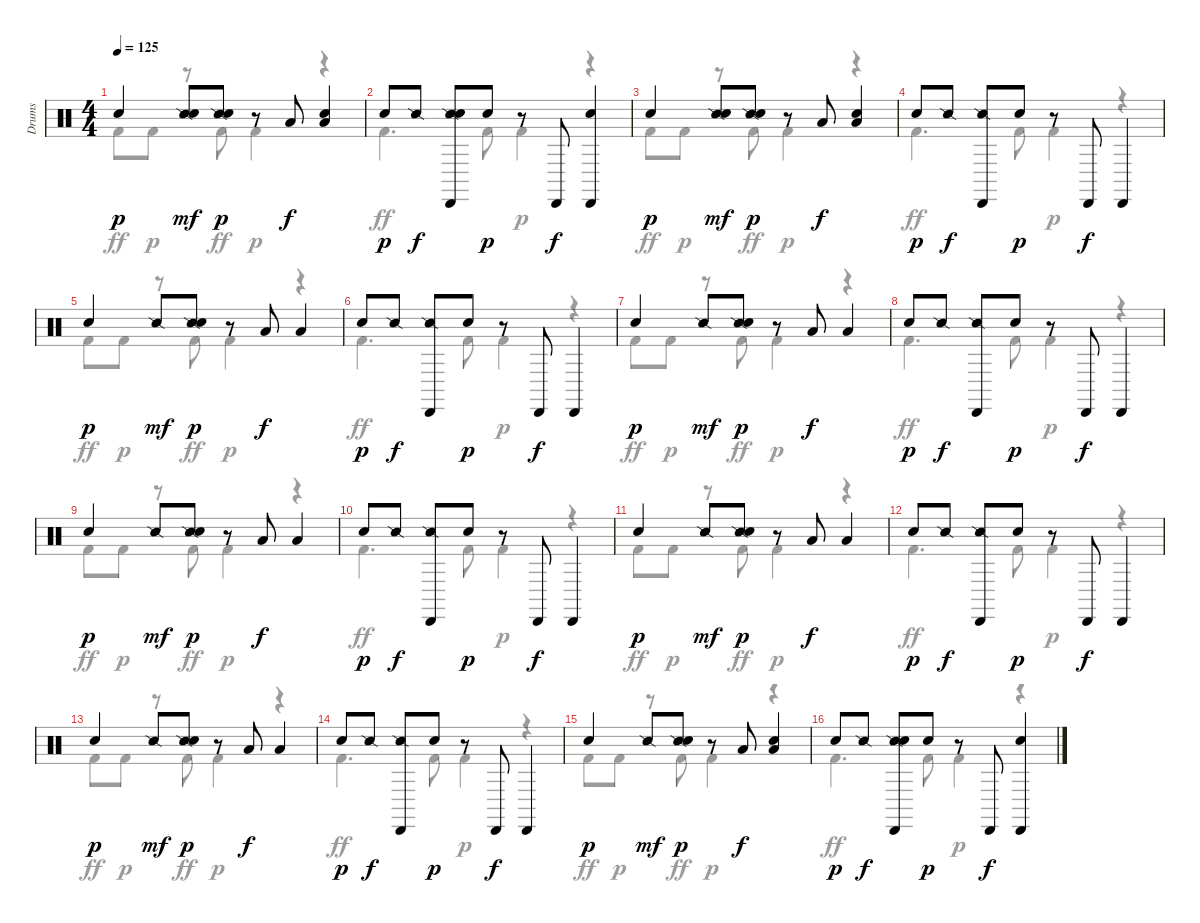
\track ("Drums" "Drums") {instrument percussion}
\staff {score}
\articulation defaults
\voice
\ts (4 4)
\tempo 125
\clef neutral
\ks c "Hand Clap (hit)".4{dy p}
("Snare (side stick) 2" "Snare (hit) 2").8{dy mf} ("Snare (side stick) 2" "Hand Clap (hit)").8{dy p} r.8 "Low Tom (hit)".8{dy f} ("Low Tom (hit)" "Snare (hit) 2").4 |
"Hand Clap (hit)".8{dy p} "Snare (side stick) 2".8{dy f} ("Snare (side stick) 2" "Cabasa (hit)" "Snare (hit) 2").8 "Hand Clap (hit)".8{dy p} r.8 "Cabasa (hit)".8{dy f} ("Cabasa (hit)" "Snare (hit) 2").4 |
"Hand Clap (hit)".4{dy p} ("Snare (side stick) 2" "Snare (hit) 2").8{dy mf} ("Snare (side stick) 2" "Hand Clap (hit)").8{dy p} r.8 "Low Tom (hit)".8{dy f} ("Low Tom (hit)" "Snare (hit) 2").4 |
"Hand Clap (hit)".8{dy p} "Snare (side stick) 2".8{dy f} ("Snare (side stick) 2" "Cabasa (hit)").8 "Hand Clap (hit)".8{dy p} r.8 "Cabasa (hit)".8{dy f} "Cabasa (hit)".4 |
"Hand Clap (hit)".4{dy p} "Snare (side stick) 2".8{dy mf} ("Snare (side stick) 2" "Hand Clap (hit)").8{dy p} r.8 "Low Tom (hit)".8{dy f} "Low Tom (hit)".4 |
"Hand Clap (hit)".8{dy p} "Snare (side stick) 2".8{dy f} ("Snare (side stick) 2" "Cabasa (hit)").8 "Hand Clap (hit)".8{dy p} r.8 "Cabasa (hit)".8{dy f} "Cabasa (hit)".4 |
"Hand Clap (hit)".4{dy p} "Snare (side stick) 2".8{dy mf} ("Snare (side stick) 2" "Hand Clap (hit)").8{dy p} r.8 "Low Tom (hit)".8{dy f} "Low Tom (hit)".4 |
"Hand Clap (hit)".8{dy p} "Snare (side stick) 2".8{dy f} ("Snare (side stick) 2" "Cabasa (hit)").8 "Hand Clap (hit)".8{dy p} r.8 "Cabasa (hit)".8{dy f} "Cabasa (hit)".4 |
"Hand Clap (hit)".4{dy p} "Snare (side stick) 2".8{dy mf} ("Snare (side stick) 2" "Hand Clap (hit)").8{dy p} r.8 "Low Tom (hit)".8{dy f} "Low Tom (hit)".4 |
"Hand Clap (hit)".8{dy p} "Snare (side stick) 2".8{dy f} ("Snare (side stick) 2" "Cabasa (hit)").8 "Hand Clap (hit)".8{dy p} r.8 "Cabasa (hit)".8{dy f} "Cabasa (hit)".4 |
"Hand Clap (hit)".4{dy p} "Snare (side stick) 2".8{dy mf} ("Snare (side stick) 2" "Hand Clap (hit)").8{dy p} r.8 "Low Tom (hit)".8{dy f} "Low Tom (hit)".4 |
"Hand Clap (hit)".8{dy p} "Snare (side stick) 2".8{dy f} ("Snare (side stick) 2" "Cabasa (hit)").8 "Hand Clap (hit)".8{dy p} r.8 "Cabasa (hit)".8{dy f} "Cabasa (hit)".4 |
"Hand Clap (hit)".4{dy p} "Snare (side stick) 2".8{dy mf} ("Snare (side stick) 2" "Hand Clap (hit)").8{dy p} r.8 "Low Tom (hit)".8{dy f} "Low Tom (hit)".4 |
"Hand Clap (hit)".8{dy p} "Snare (side stick) 2".8{dy f} ("Snare (side stick) 2" "Cabasa (hit)").8 "Hand Clap (hit)".8{dy p} r.8 "Cabasa (hit)".8{dy f} "Cabasa (hit)".4 |
"Hand Clap (hit)".4{dy p} "Snare (side stick) 2".8{dy mf} ("Snare (side stick) 2" "Hand Clap (hit)").8{dy p} r.8 "Low Tom (hit)".8{dy f} ("Low Tom (hit)" "Snare (hit) 2").4 |
"Hand Clap (hit)".8{dy p} "Snare (side stick) 2".8{dy f} ("Snare (side stick) 2" "Cabasa (hit)" "Snare (hit) 2").8 "Hand Clap (hit)".8{dy p} r.8 "Cabasa (hit)".8{dy f} ("Cabasa (hit)" "Snare (hit) 2").4
\voice
\clef neutral
\ottava regular
\simile none
\ks c "Kick (hit) 2".8{dy ff} "Kick (hit) 2".8{dy p}
r.8 "Kick (hit) 2".8{dy ff} "Kick (hit) 2".4{dy p} r.4 |
"Kick (hit) 2".4{d dy ff} "Kick (hit) 2".8 "Kick (hit) 2".4{dy p} r.4 |
"Kick (hit) 2".8{dy ff} "Kick (hit) 2".8{dy p} r.8 "Kick (hit) 2".8{dy ff} "Kick (hit) 2".4{dy p} r.4 |
"Kick (hit) 2".4{d dy ff} "Kick (hit) 2".8 "Kick (hit) 2".4{dy p} r.4 |
"Kick (hit) 2".8{dy ff} "Kick (hit) 2".8{dy p} r.8 "Kick (hit) 2".8{dy ff} "Kick (hit) 2".4{dy p} r.4 |
"Kick (hit) 2".4{d dy ff} "Kick (hit) 2".8 "Kick (hit) 2".4{dy p} r.4 |
"Kick (hit) 2".8{dy ff} "Kick (hit) 2".8{dy p} r.8 "Kick (hit) 2".8{dy ff} "Kick (hit) 2".4{dy p} r.4 |
"Kick (hit) 2".4{d dy ff} "Kick (hit) 2".8 "Kick (hit) 2".4{dy p} r.4 |
"Kick (hit) 2".8{dy ff} "Kick (hit) 2".8{dy p} r.8 "Kick (hit) 2".8{dy ff} "Kick (hit) 2".4{dy p} r.4 |
"Kick (hit) 2".4{d dy ff} "Kick (hit) 2".8 "Kick (hit) 2".4{dy p} r.4 |
"Kick (hit) 2".8{dy ff} "Kick (hit) 2".8{dy p} r.8 "Kick (hit) 2".8{dy ff} "Kick (hit) 2".4{dy p} r.4 |
"Kick (hit) 2".4{d dy ff} "Kick (hit) 2".8 "Kick (hit) 2".4{dy p} r.4 |
"Kick (hit) 2".8{dy ff} "Kick (hit) 2".8{dy p} r.8 "Kick (hit) 2".8{dy ff} "Kick (hit) 2".4{dy p} r.4 |
"Kick (hit) 2".4{d dy ff} "Kick (hit) 2".8 "Kick (hit) 2".4{dy p} r.4 |
"Kick (hit) 2".8{dy ff} "Kick (hit) 2".8{dy p} r.8 "Kick (hit) 2".8{dy ff} "Kick (hit) 2".4{dy p} r.4 |
"Kick (hit) 2".4{d dy ff} "Kick (hit) 2".8 "Kick (hit) 2".4{dy p} r.4
